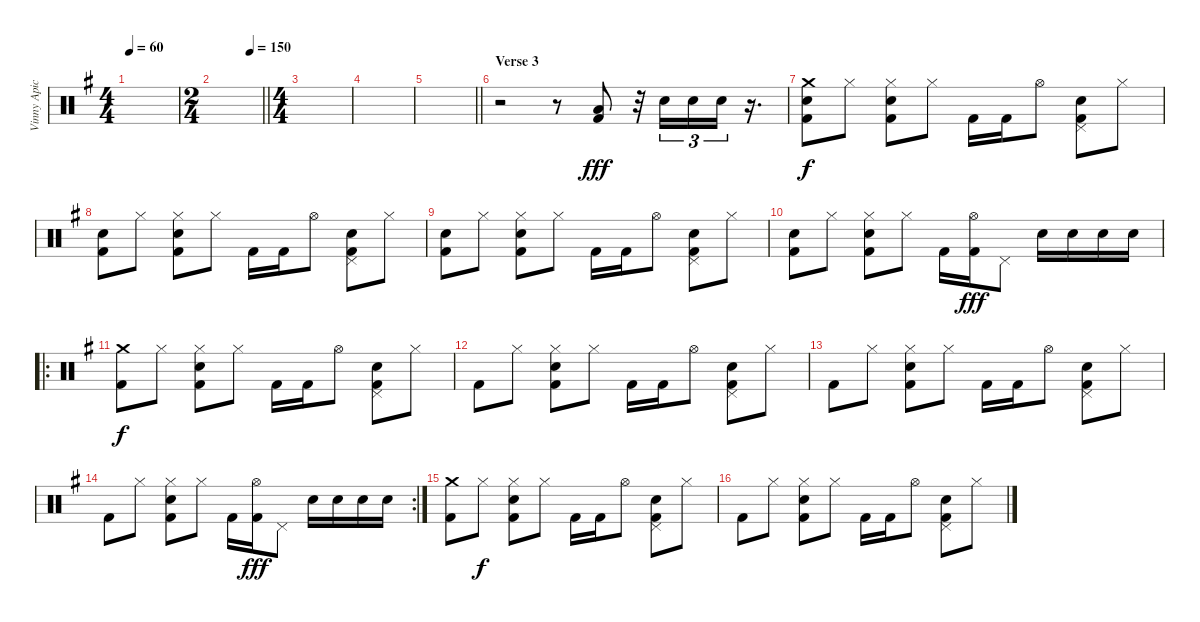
\track ("Vinny Apice" "Vinny Apic") {instrument percussion}
\staff {score}
\articulation defaults
\ts (4 4)
\tempo 60
\clef neutral
\ks g
|
\ts (2 4)
\tempo (150 0.75)
\barLineRight lightlight
|
\ts (4 4)
|
|
\barLineRight lightlight
|
\section ("" "Verse 3")
r.2 r.8 ("Low Floor Tom (hit)" "Kick (hit) 2").8{dy fff} r.32 "Snare (hit) 2".16{tu (3 2)} "Snare (hit) 2".16{tu (3 2)} "Snare (hit) 2".16{tu (3 2)} r.16{d} |
("Crash medium (hit)" "Snare (hit) 2" "Kick (hit) 2").8{dy f} "Hi-Hat (closed)".8 ("Hi-Hat (closed)" "Snare (hit) 2" "Kick (hit) 2").8 "Hi-Hat (closed)".8 "Kick (hit) 2".16 "Kick (hit) 2".16 "Hi-Hat (open)".8 ("Pedal Hi-Hat (hit)" "Snare (hit) 2" "Kick (hit) 2").8 "Hi-Hat (closed)".8 |
("Snare (hit) 2" "Kick (hit) 2").8 "Hi-Hat (closed)".8 ("Hi-Hat (closed)" "Snare (hit) 2" "Kick (hit) 2").8 "Hi-Hat (closed)".8 "Kick (hit) 2".16 "Kick (hit) 2".16 "Hi-Hat (open)".8 ("Pedal Hi-Hat (hit)" "Snare (hit) 2" "Kick (hit) 2").8 "Hi-Hat (closed)".8 |
("Snare (hit) 2" "Kick (hit) 2").8 "Hi-Hat (closed)".8 ("Hi-Hat (closed)" "Snare (hit) 2" "Kick (hit) 2").8 "Hi-Hat (closed)".8 "Kick (hit) 2".16 "Kick (hit) 2".16 "Hi-Hat (open)".8 ("Pedal Hi-Hat (hit)" "Snare (hit) 2" "Kick (hit) 2").8 "Hi-Hat (closed)".8 |
("Snare (hit) 2" "Kick (hit) 2").8 "Hi-Hat (closed)".8 ("Hi-Hat (closed)" "Snare (hit) 2" "Kick (hit) 2").8 "Hi-Hat (closed)".8 "Kick (hit) 2".16 ("Hi-Hat (open)" "Kick (hit) 2").16{dy fff} "Pedal Hi-Hat (hit)".8 "Snare (hit) 2".16 "Snare (hit) 2".16 "Snare (hit) 2".16 "Snare (hit) 2".16 |
\ro
("Crash medium (hit)" "Kick (hit) 2").8{dy f} "Hi-Hat (closed)".8 ("Hi-Hat (closed)" "Snare (hit) 2" "Kick (hit) 2").8 "Hi-Hat (closed)".8 "Kick (hit) 2".16 "Kick (hit) 2".16 "Hi-Hat (open)".8 ("Pedal Hi-Hat (hit)" "Snare (hit) 2" "Kick (hit) 2").8 "Hi-Hat (closed)".8 |
"Kick (hit) 2".8 "Hi-Hat (closed)".8 ("Hi-Hat (closed)" "Snare (hit) 2" "Kick (hit) 2").8 "Hi-Hat (closed)".8 "Kick (hit) 2".16 "Kick (hit) 2".16 "Hi-Hat (open)".8 ("Pedal Hi-Hat (hit)" "Snare (hit) 2" "Kick (hit) 2").8 "Hi-Hat (closed)".8 |
"Kick (hit) 2".8 "Hi-Hat (closed)".8 ("Hi-Hat (closed)" "Snare (hit) 2" "Kick (hit) 2").8 "Hi-Hat (closed)".8 "Kick (hit) 2".16 "Kick (hit) 2".16 "Hi-Hat (open)".8 ("Pedal Hi-Hat (hit)" "Snare (hit) 2" "Kick (hit) 2").8 "Hi-Hat (closed)".8 |
\rc 2 "Kick (hit) 2".8 "Hi-Hat (closed)".8
("Hi-Hat (closed)" "Snare (hit) 2" "Kick (hit) 2").8 "Hi-Hat (closed)".8 "Kick (hit) 2".16 ("Hi-Hat (open)" "Kick (hit) 2").16{dy fff} "Pedal Hi-Hat (hit)".8 "Snare (hit) 2".16 "Snare (hit) 2".16 "Snare (hit) 2".16 "Snare (hit) 2".16 |
("Crash medium (hit)" "Kick (hit) 2").8 "Hi-Hat (closed)".8{dy f} ("Hi-Hat (closed)" "Snare (hit) 2" "Kick (hit) 2").8 "Hi-Hat (closed)".8 "Kick (hit) 2".16 "Kick (hit) 2".16 "Hi-Hat (open)".8 ("Pedal Hi-Hat (hit)" "Snare (hit) 2" "Kick (hit) 2").8 "Hi-Hat (closed)".8 |
"Kick (hit) 2".8 "Hi-Hat (closed)".8 ("Hi-Hat (closed)" "Snare (hit) 2" "Kick (hit) 2").8 "Hi-Hat (closed)".8 "Kick (hit) 2".16 "Kick (hit) 2".16 "Hi-Hat (open)".8 ("Pedal Hi-Hat (hit)" "Snare (hit) 2" "Kick (hit) 2").8 "Hi-Hat (closed)".8
